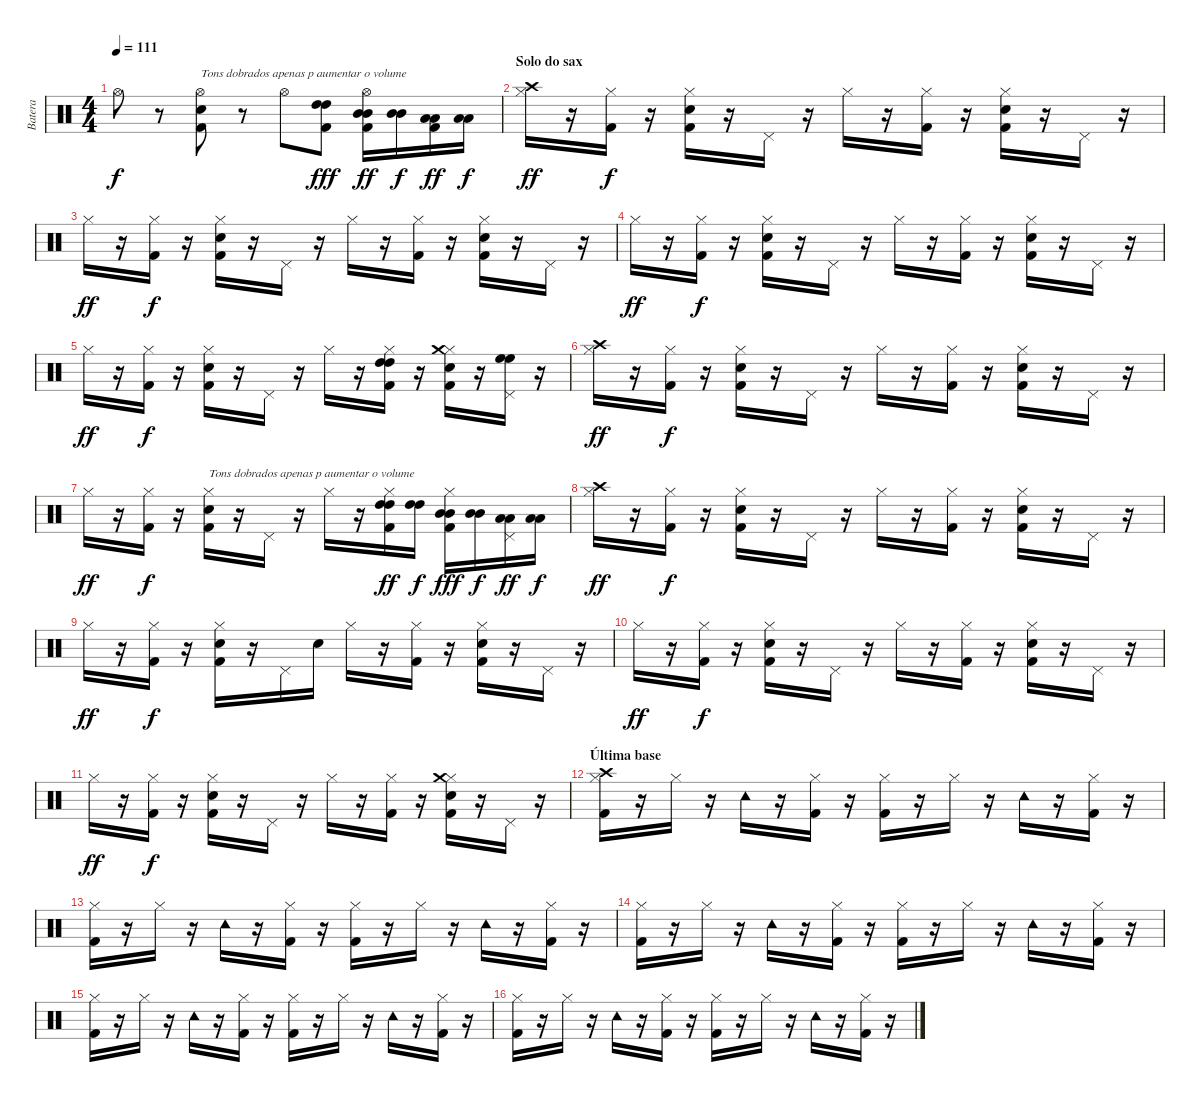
\track ("Batera" "Batera") {instrument percussion}
\staff {score}
\articulation defaults
\ts (4 4)
\tempo 111
\clef neutral
\ks c "Hi-Hat (open)".8{dy f}
r.8 ("Hi-Hat (open)" "Snare (hit) 2" "Kick (hit) 2").8{txt "Tons dobrados apenas p aumentar o volume"} r.8 "Hi-Hat (open)".8 ("High Tom (hit)" "High Tom (hit)" "Kick (hit) 2").8{dy fff} ("Hi-Hat (open)" "Mid Tom (hit)" "Mid Tom (hit)" "Kick (hit) 2").16{dy ff} ("Mid Tom (hit)" "Mid Tom (hit)").16{dy f} ("Low Tom (hit)" "Low Tom (hit)" "Kick (hit) 2").16{dy ff} ("Low Tom (hit)" "Low Tom (hit)").16{dy f} |
\section ("" "Solo do sax")
("Hi-Hat (closed)" "Crash high (hit)").16{dy ff} r.16 ("Hi-Hat (closed)" "Kick (hit) 2").16{dy f} r.16 ("Hi-Hat (closed)" "Snare (hit) 2" "Kick (hit) 2").16 r.16 "Pedal Hi-Hat (hit)".16 r.16 "Hi-Hat (closed)".16 r.16 ("Hi-Hat (closed)" "Kick (hit) 2").16 r.16 ("Hi-Hat (closed)" "Snare (hit) 2" "Kick (hit) 2").16 r.16 "Pedal Hi-Hat (hit)".16 r.16 |
"Hi-Hat (closed)".16{dy ff} r.16 ("Hi-Hat (closed)" "Kick (hit) 2").16{dy f} r.16 ("Hi-Hat (closed)" "Snare (hit) 2" "Kick (hit) 2").16 r.16 "Pedal Hi-Hat (hit)".16 r.16 "Hi-Hat (closed)".16 r.16 ("Hi-Hat (closed)" "Kick (hit) 2").16 r.16 ("Hi-Hat (closed)" "Snare (hit) 2" "Kick (hit) 2").16 r.16 "Pedal Hi-Hat (hit)".16 r.16 |
"Hi-Hat (closed)".16{dy ff} r.16 ("Hi-Hat (closed)" "Kick (hit) 2").16{dy f} r.16 ("Hi-Hat (closed)" "Snare (hit) 2" "Kick (hit) 2").16 r.16 "Pedal Hi-Hat (hit)".16 r.16 "Hi-Hat (closed)".16 r.16 ("Hi-Hat (closed)" "Kick (hit) 2").16 r.16 ("Hi-Hat (closed)" "Snare (hit) 2" "Kick (hit) 2").16 r.16 "Pedal Hi-Hat (hit)".16 r.16 |
"Hi-Hat (closed)".16{dy ff} r.16 ("Hi-Hat (closed)" "Kick (hit) 2").16{dy f} r.16 ("Hi-Hat (closed)" "Snare (hit) 2" "Kick (hit) 2").16 r.16 "Pedal Hi-Hat (hit)".16 r.16 "Hi-Hat (closed)".16 r.16 ("Hi-Hat (closed)" "High Tom (hit)" "High Tom (hit)" "Kick (hit) 2").16 r.16 ("Hi-Hat (closed)" "Crash medium (hit)" "Snare (hit) 2" "Kick (hit) 2").16 r.16 ("Pedal Hi-Hat (hit)" "High Floor Tom (hit)" "High Floor Tom (hit)").16 r.16 |
("Hi-Hat (closed)" "Crash high (hit)").16{dy ff} r.16 ("Hi-Hat (closed)" "Kick (hit) 2").16{dy f} r.16 ("Hi-Hat (closed)" "Snare (hit) 2" "Kick (hit) 2").16 r.16 "Pedal Hi-Hat (hit)".16 r.16 "Hi-Hat (closed)".16 r.16 ("Hi-Hat (closed)" "Kick (hit) 2").16 r.16 ("Hi-Hat (closed)" "Snare (hit) 2" "Kick (hit) 2").16 r.16 "Pedal Hi-Hat (hit)".16 r.16 |
"Hi-Hat (closed)".16{dy ff} r.16 ("Hi-Hat (closed)" "Kick (hit) 2").16{dy f} r.16 ("Hi-Hat (closed)" "Snare (hit) 2" "Kick (hit) 2").16{txt "Tons dobrados apenas p aumentar o volume"} r.16 "Pedal Hi-Hat (hit)".16 r.16 "Hi-Hat (closed)".16 r.16 ("Hi-Hat (closed)" "High Tom (hit)" "High Tom (hit)" "Kick (hit) 2").16{dy ff} ("High Tom (hit)" "High Tom (hit)").16{dy f} ("Hi-Hat (closed)" "Mid Tom (hit)" "Mid Tom (hit)" "Kick (hit) 2").16{dy fff} ("Mid Tom (hit)" "Mid Tom (hit)").16{dy f} ("Pedal Hi-Hat (hit)" "Low Tom (hit)" "Low Tom (hit)").16{dy ff} ("Low Tom (hit)" "Low Tom (hit)").16{dy f} |
("Hi-Hat (closed)" "Crash high (hit)").16{dy ff} r.16 ("Hi-Hat (closed)" "Kick (hit) 2").16{dy f} r.16 ("Hi-Hat (closed)" "Snare (hit) 2" "Kick (hit) 2").16 r.16 "Pedal Hi-Hat (hit)".16 r.16 "Hi-Hat (closed)".16 r.16 ("Hi-Hat (closed)" "Kick (hit) 2").16 r.16 ("Hi-Hat (closed)" "Snare (hit) 2" "Kick (hit) 2").16 r.16 "Pedal Hi-Hat (hit)".16 r.16 |
"Hi-Hat (closed)".16{dy ff} r.16 ("Hi-Hat (closed)" "Kick (hit) 2").16{dy f} r.16 ("Hi-Hat (closed)" "Snare (hit) 2" "Kick (hit) 2").16 r.16 "Pedal Hi-Hat (hit)".16 "Snare (hit) 2".16 "Hi-Hat (closed)".16 r.16 ("Hi-Hat (closed)" "Kick (hit) 2").16 r.16 ("Hi-Hat (closed)" "Snare (hit) 2" "Kick (hit) 2").16 r.16 "Pedal Hi-Hat (hit)".16 r.16 |
"Hi-Hat (closed)".16{dy ff} r.16 ("Hi-Hat (closed)" "Kick (hit) 2").16{dy f} r.16 ("Hi-Hat (closed)" "Snare (hit) 2" "Kick (hit) 2").16 r.16 "Pedal Hi-Hat (hit)".16 r.16 "Hi-Hat (closed)".16 r.16 ("Hi-Hat (closed)" "Kick (hit) 2").16 r.16 ("Hi-Hat (closed)" "Snare (hit) 2" "Kick (hit) 2").16 r.16 "Pedal Hi-Hat (hit)".16 r.16 |
"Hi-Hat (closed)".16{dy ff} r.16 ("Hi-Hat (closed)" "Kick (hit) 2").16{dy f} r.16 ("Hi-Hat (closed)" "Snare (hit) 2" "Kick (hit) 2").16 r.16 "Pedal Hi-Hat (hit)".16 r.16 "Hi-Hat (closed)".16 r.16 ("Hi-Hat (closed)" "Kick (hit) 2").16 r.16 ("Hi-Hat (closed)" "Crash medium (hit)" "Snare (hit) 2" "Kick (hit) 2").16 r.16 "Pedal Hi-Hat (hit)".16 r.16 |
\section ("" "Última base")
("Hi-Hat (closed)" "Crash high (hit)" "Kick (hit) 2").16 r.16 "Hi-Hat (closed)".16 r.16 "Tambourine (hit)".16 r.16 ("Hi-Hat (closed)" "Kick (hit) 2").16 r.16 ("Hi-Hat (closed)" "Kick (hit) 2").16 r.16 "Hi-Hat (closed)".16 r.16 "Tambourine (hit)".16 r.16 ("Hi-Hat (closed)" "Kick (hit) 2").16 r.16 |
("Hi-Hat (closed)" "Kick (hit) 2").16 r.16 "Hi-Hat (closed)".16 r.16 "Tambourine (hit)".16 r.16 ("Hi-Hat (closed)" "Kick (hit) 2").16 r.16 ("Hi-Hat (closed)" "Kick (hit) 2").16 r.16 "Hi-Hat (closed)".16 r.16 "Tambourine (hit)".16 r.16 ("Hi-Hat (closed)" "Kick (hit) 2").16 r.16 |
("Hi-Hat (closed)" "Kick (hit) 2").16 r.16 "Hi-Hat (closed)".16 r.16 "Tambourine (hit)".16 r.16 ("Hi-Hat (closed)" "Kick (hit) 2").16 r.16 ("Hi-Hat (closed)" "Kick (hit) 2").16 r.16 "Hi-Hat (closed)".16 r.16 "Tambourine (hit)".16 r.16 ("Hi-Hat (closed)" "Kick (hit) 2").16 r.16 |
("Hi-Hat (closed)" "Kick (hit) 2").16 r.16 "Hi-Hat (closed)".16 r.16 "Tambourine (hit)".16 r.16 ("Hi-Hat (closed)" "Kick (hit) 2").16 r.16 ("Hi-Hat (closed)" "Kick (hit) 2").16 r.16 "Hi-Hat (closed)".16 r.16 "Tambourine (hit)".16 r.16 ("Hi-Hat (closed)" "Kick (hit) 2").16 r.16 |
("Hi-Hat (closed)" "Kick (hit) 2").16 r.16 "Hi-Hat (closed)".16 r.16 "Tambourine (hit)".16 r.16 ("Hi-Hat (closed)" "Kick (hit) 2").16 r.16 ("Hi-Hat (closed)" "Kick (hit) 2").16 r.16 "Hi-Hat (closed)".16 r.16 "Tambourine (hit)".16 r.16 ("Hi-Hat (closed)" "Kick (hit) 2").16 r.16
